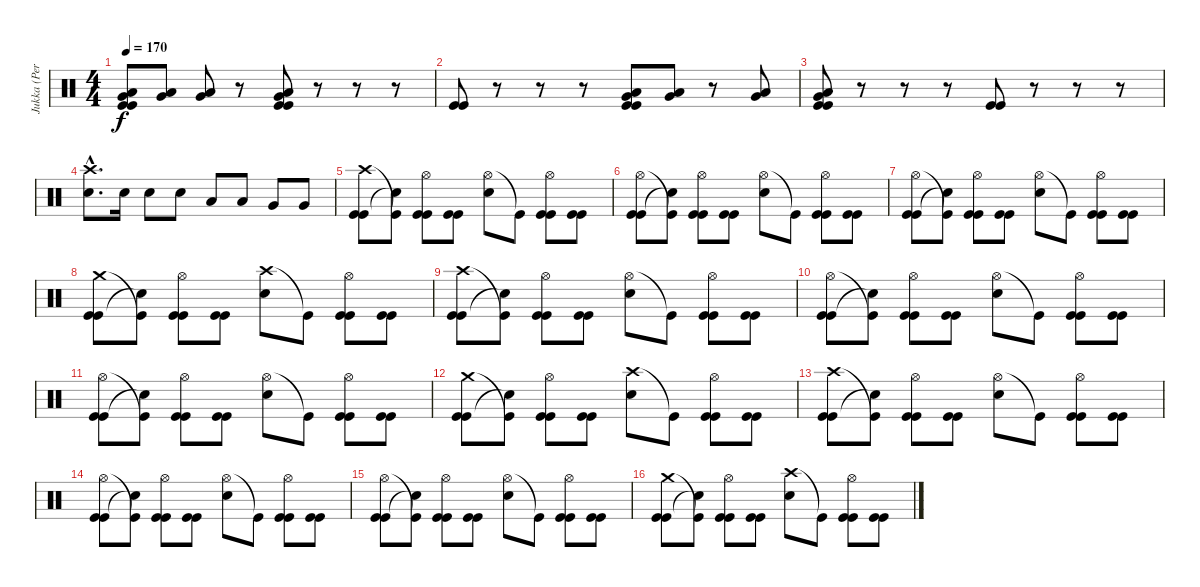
\track ("Jukka (Percussion)" "Jukka (Per") {instrument percussion}
\staff {score}
\articulation defaults
\ts (4 4)
\tempo 170
\clef neutral
\ks c
("Very Low Tom (hit)" "Low Floor Tom (hit)" "Kick (hit)" "Kick (hit)").8{dy f} ("Very Low Tom (hit)" "Low Floor Tom (hit)").8 ("Very Low Tom (hit)" "Low Floor Tom (hit)").8 r.8 ("Very Low Tom (hit)" "Low Floor Tom (hit)" "Kick (hit)" "Kick (hit)").8 r.8 r.8 r.8 |
("Kick (hit)" "Kick (hit)").8 r.8 r.8 r.8 ("Low Floor Tom (hit)" "Very Low Tom (hit)" "Kick (hit)" "Kick (hit)").8 ("Low Floor Tom (hit)" "Very Low Tom (hit)").8 r.8 ("Low Floor Tom (hit)" "Very Low Tom (hit)").8 |
("Low Floor Tom (hit)" "Very Low Tom (hit)" "Kick (hit)" "Kick (hit)").8 r.8 r.8 r.8 ("Kick (hit)" "Kick (hit)").8 r.8 r.8 r.8 |
("Crash high (hit)"{hac} "Snare (hit) 2"{hac}).8{d} "Snare (hit) 2".16 "Snare (hit) 2".8 "Snare (hit) 2".8 "Low Tom (hit)".8 "Low Tom (hit)".8 "Very Low Tom (hit)".8 "Very Low Tom (hit)".8 |
("Crash high (hit)" "Kick (hit)" "Kick (hit)").8 ("Kick (hit)"{t} "Snare (hit)"{t}).8 ("Hi-Hat (open)" "Kick (hit)" "Kick (hit)").8 ("Kick (hit)" "Kick (hit)").8 ("Hi-Hat (open)" "Snare (hit) 2").8 "Kick (hit)"{t}.8 ("Hi-Hat (open)" "Kick (hit)" "Kick (hit)").8 ("Kick (hit)" "Kick (hit)").8 |
("Hi-Hat (open)" "Kick (hit)" "Kick (hit)").8 ("Kick (hit)"{t} "Snare (hit)"{t}).8 ("Hi-Hat (open)" "Kick (hit)" "Kick (hit)").8 ("Kick (hit)" "Kick (hit)").8 ("Hi-Hat (open)" "Snare (hit) 2").8 "Kick (hit)"{t}.8 ("Hi-Hat (open)" "Kick (hit)" "Kick (hit)").8 ("Kick (hit)" "Kick (hit)").8 |
("Hi-Hat (open)" "Kick (hit)" "Kick (hit)").8 ("Kick (hit)"{t} "Snare (hit)"{t}).8 ("Hi-Hat (open)" "Kick (hit)" "Kick (hit)").8 ("Kick (hit)" "Kick (hit)").8 ("Hi-Hat (open)" "Snare (hit) 2").8 "Kick (hit)"{t}.8 ("Hi-Hat (open)" "Kick (hit)" "Kick (hit)").8 ("Kick (hit)" "Kick (hit)").8 |
("Crash medium (hit)" "Kick (hit)" "Kick (hit)").8 ("Kick (hit)"{t} "Snare (hit)"{t}).8 ("Hi-Hat (open)" "Kick (hit)" "Kick (hit)").8 ("Kick (hit)" "Kick (hit)").8 ("Crash high (hit)" "Snare (hit) 2").8 "Kick (hit)"{t}.8 ("Hi-Hat (open)" "Kick (hit)" "Kick (hit)").8 ("Kick (hit)" "Kick (hit)").8 |
("Crash high (hit)" "Kick (hit)" "Kick (hit)").8 ("Kick (hit)"{t} "Snare (hit)"{t}).8 ("Hi-Hat (open)" "Kick (hit)" "Kick (hit)").8 ("Kick (hit)" "Kick (hit)").8 ("Hi-Hat (open)" "Snare (hit) 2").8 "Kick (hit)"{t}.8 ("Hi-Hat (open)" "Kick (hit)" "Kick (hit)").8 ("Kick (hit)" "Kick (hit)").8 |
("Hi-Hat (open)" "Kick (hit)" "Kick (hit)").8 ("Kick (hit)"{t} "Snare (hit)"{t}).8 ("Hi-Hat (open)" "Kick (hit)" "Kick (hit)").8 ("Kick (hit)" "Kick (hit)").8 ("Hi-Hat (open)" "Snare (hit) 2").8 "Kick (hit)"{t}.8 ("Hi-Hat (open)" "Kick (hit)" "Kick (hit)").8 ("Kick (hit)" "Kick (hit)").8 |
("Hi-Hat (open)" "Kick (hit)" "Kick (hit)").8 ("Kick (hit)"{t} "Snare (hit)"{t}).8 ("Hi-Hat (open)" "Kick (hit)" "Kick (hit)").8 ("Kick (hit)" "Kick (hit)").8 ("Hi-Hat (open)" "Snare (hit) 2").8 "Kick (hit)"{t}.8 ("Hi-Hat (open)" "Kick (hit)" "Kick (hit)").8 ("Kick (hit)" "Kick (hit)").8 |
("Crash medium (hit)" "Kick (hit)" "Kick (hit)").8 ("Kick (hit)"{t} "Snare (hit)"{t}).8 ("Hi-Hat (open)" "Kick (hit)" "Kick (hit)").8 ("Kick (hit)" "Kick (hit)").8 ("Crash high (hit)" "Snare (hit) 2").8 "Kick (hit)"{t}.8 ("Hi-Hat (open)" "Kick (hit)" "Kick (hit)").8 ("Kick (hit)" "Kick (hit)").8 |
("Crash high (hit)" "Kick (hit)" "Kick (hit)").8 ("Kick (hit)"{t} "Snare (hit)"{t}).8 ("Hi-Hat (open)" "Kick (hit)" "Kick (hit)").8 ("Kick (hit)" "Kick (hit)").8 ("Hi-Hat (open)" "Snare (hit) 2").8 "Kick (hit)"{t}.8 ("Hi-Hat (open)" "Kick (hit)" "Kick (hit)").8 ("Kick (hit)" "Kick (hit)").8 |
("Hi-Hat (open)" "Kick (hit)" "Kick (hit)").8 ("Kick (hit)"{t} "Snare (hit)"{t}).8 ("Hi-Hat (open)" "Kick (hit)" "Kick (hit)").8 ("Kick (hit)" "Kick (hit)").8 ("Hi-Hat (open)" "Snare (hit) 2").8 "Kick (hit)"{t}.8 ("Hi-Hat (open)" "Kick (hit)" "Kick (hit)").8 ("Kick (hit)" "Kick (hit)").8 |
("Hi-Hat (open)" "Kick (hit)" "Kick (hit)").8 ("Kick (hit)"{t} "Snare (hit)"{t}).8 ("Hi-Hat (open)" "Kick (hit)" "Kick (hit)").8 ("Kick (hit)" "Kick (hit)").8 ("Hi-Hat (open)" "Snare (hit) 2").8 "Kick (hit)"{t}.8 ("Hi-Hat (open)" "Kick (hit)" "Kick (hit)").8 ("Kick (hit)" "Kick (hit)").8 |
("Crash medium (hit)" "Kick (hit)" "Kick (hit)").8 ("Kick (hit)"{t} "Snare (hit)"{t}).8 ("Hi-Hat (open)" "Kick (hit)" "Kick (hit)").8 ("Kick (hit)" "Kick (hit)").8 ("Crash high (hit)" "Snare (hit) 2").8 "Kick (hit)"{t}.8 ("Hi-Hat (open)" "Kick (hit)" "Kick (hit)").8 ("Kick (hit)" "Kick (hit)").8
